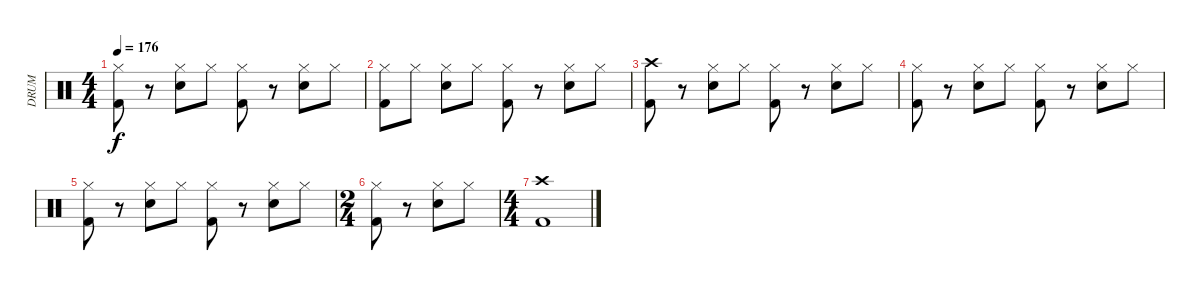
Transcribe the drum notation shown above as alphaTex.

\track ("DRUM" "DRUM") {instrument percussion}
\staff {score}
\articulation defaults
\ts (4 4)
\tempo 176
\clef neutral
\ks c
("Hi-Hat (closed)" "Kick (hit) 2").8{dy f} r.8 ("Hi-Hat (closed)" "Electric Snare (hit)").8 "Hi-Hat (closed)".8 ("Hi-Hat (closed)" "Kick (hit) 2").8 r.8 ("Hi-Hat (closed)" "Electric Snare (hit)").8 "Hi-Hat (closed)".8 |
("Hi-Hat (closed)" "Kick (hit) 2").8 "Hi-Hat (closed)".8 ("Hi-Hat (closed)" "Electric Snare (hit)").8 "Hi-Hat (closed)".8 ("Hi-Hat (closed)" "Kick (hit) 2").8 r.8 ("Hi-Hat (closed)" "Electric Snare (hit)").8 "Hi-Hat (closed)".8 |
("Crash high (hit)" "Kick (hit) 2").8 r.8 ("Hi-Hat (closed)" "Electric Snare (hit)").8 "Hi-Hat (closed)".8 ("Hi-Hat (closed)" "Kick (hit) 2").8 r.8 ("Hi-Hat (closed)" "Electric Snare (hit)").8 "Hi-Hat (closed)".8 |
("Hi-Hat (closed)" "Kick (hit) 2").8 r.8 ("Hi-Hat (closed)" "Electric Snare (hit)").8 "Hi-Hat (closed)".8 ("Hi-Hat (closed)" "Kick (hit) 2").8 r.8 ("Hi-Hat (closed)" "Electric Snare (hit)").8 "Hi-Hat (closed)".8 |
("Hi-Hat (closed)" "Kick (hit) 2").8 r.8 ("Hi-Hat (closed)" "Electric Snare (hit)").8 "Hi-Hat (closed)".8 ("Hi-Hat (closed)" "Kick (hit) 2").8 r.8 ("Hi-Hat (closed)" "Electric Snare (hit)").8 "Hi-Hat (closed)".8 |
\ts (2 4)
("Hi-Hat (closed)" "Kick (hit) 2").8 r.8 ("Hi-Hat (closed)" "Electric Snare (hit)").8 "Hi-Hat (closed)".8 |
\ts (4 4)
("Crash high (hit)" "Kick (hit) 2").1
